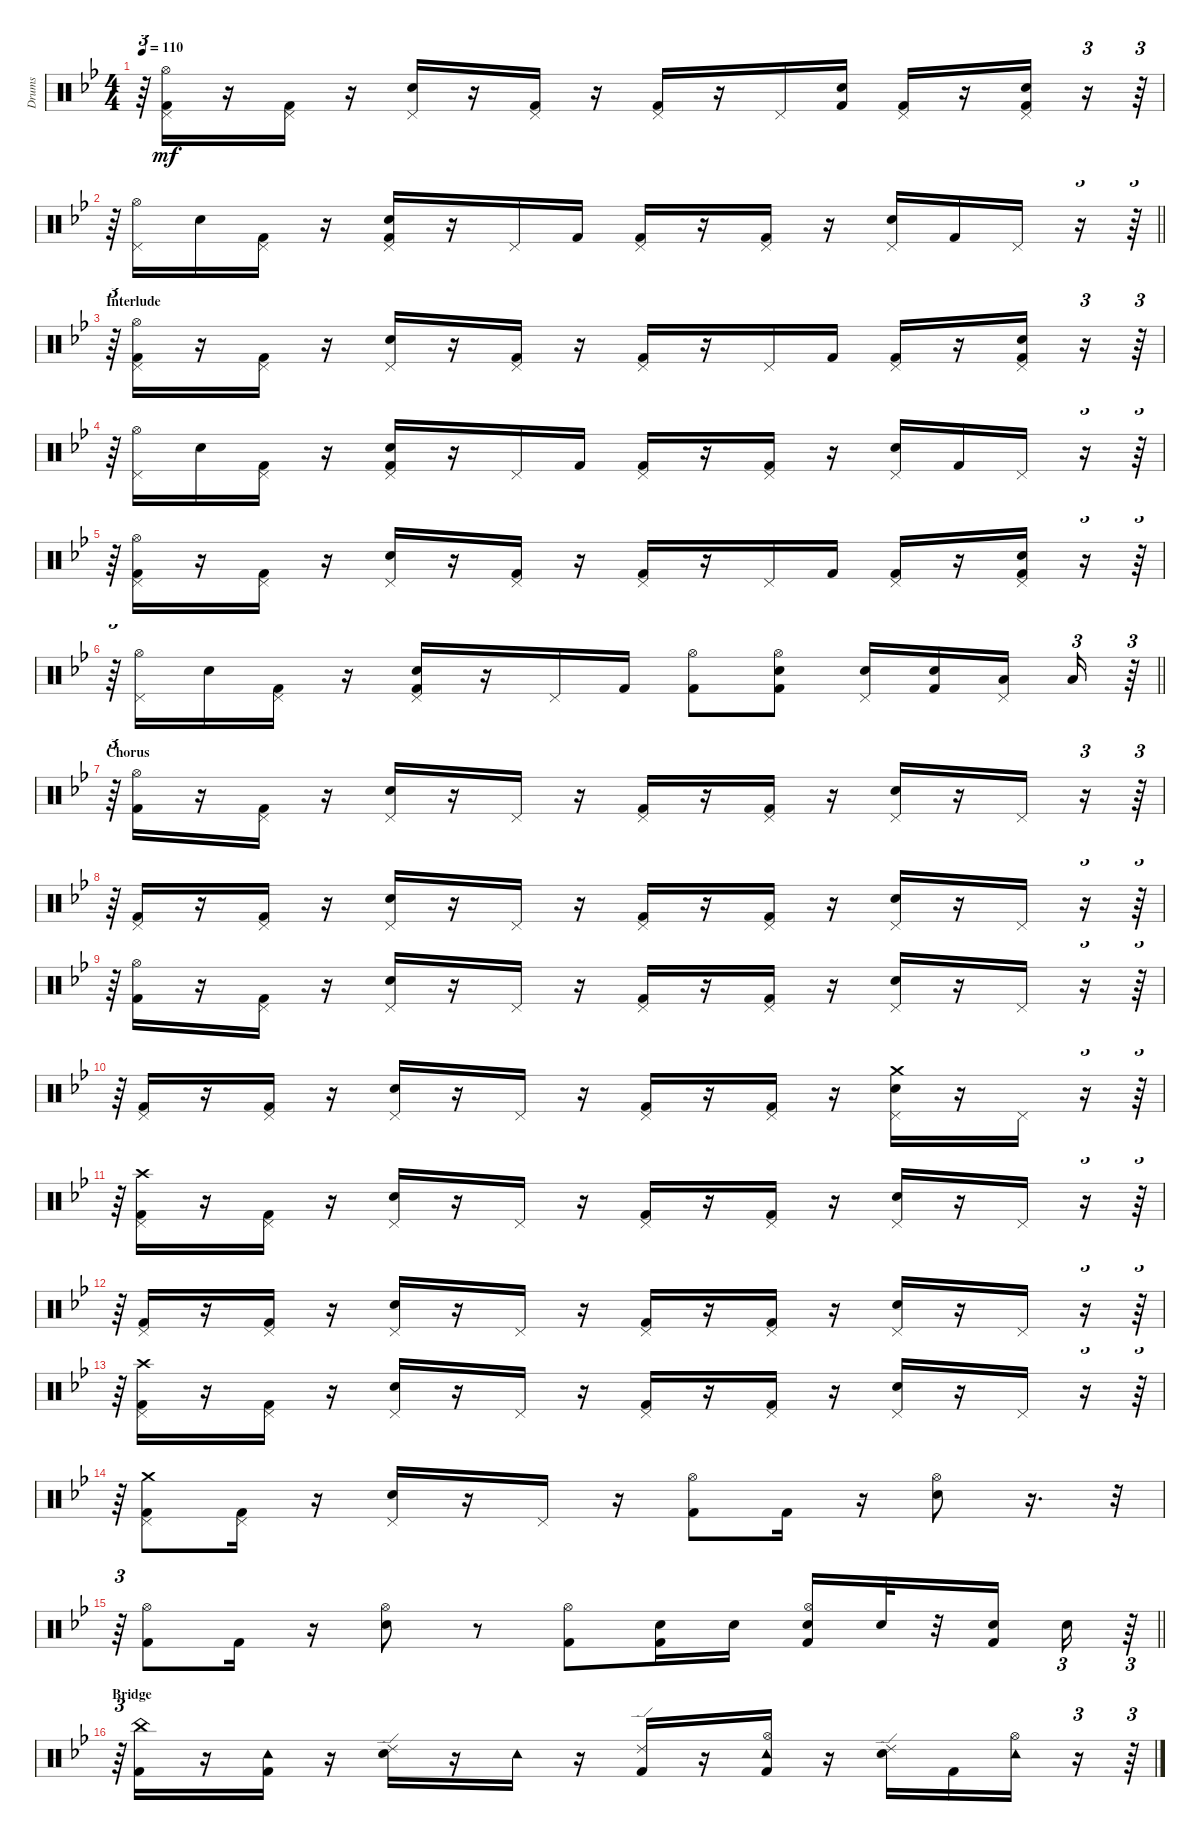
\track ("Drums" "Drums") {instrument percussion}
\staff {score}
\articulation defaults
\ts (4 4)
\tempo 110
\clef neutral
\ks gminor
r.64{tu (3 2) dy mf} ("Kick (hit) 2" "Pedal Hi-Hat (hit)" "Hi-Hat (open)").16 r.16 ("Kick (hit) 2" "Pedal Hi-Hat (hit)").16 r.16 ("Snare (hit) 2" "Pedal Hi-Hat (hit)").16 r.16 ("Kick (hit) 2" "Pedal Hi-Hat (hit)").16 r.16 ("Kick (hit) 2" "Pedal Hi-Hat (hit)").16 r.16 "Pedal Hi-Hat (hit)".16 ("Kick (hit) 2" "Snare (hit) 2").16 ("Kick (hit) 2" "Pedal Hi-Hat (hit)").16 r.16 ("Kick (hit) 2" "Snare (hit) 2" "Pedal Hi-Hat (hit)").16 r.16{tu (3 2)} r.64{tu (3 2)} |
\barLineRight lightlight
r.64{tu (3 2)} ("Pedal Hi-Hat (hit)" "Hi-Hat (open)").16 "Snare (hit) 2".16 ("Kick (hit) 2" "Pedal Hi-Hat (hit)").16 r.16 ("Kick (hit) 2" "Snare (hit) 2" "Pedal Hi-Hat (hit)").16 r.16 "Pedal Hi-Hat (hit)".16 "Kick (hit) 2".16 ("Kick (hit) 2" "Pedal Hi-Hat (hit)").16 r.16 ("Kick (hit) 2" "Pedal Hi-Hat (hit)").16 r.16 ("Snare (hit) 2" "Pedal Hi-Hat (hit)").16 "Kick (hit) 2".16 "Pedal Hi-Hat (hit)".16 r.16{tu (3 2)} r.64{tu (3 2)} |
\section ("" "Interlude")
r.64{tu (3 2)} ("Kick (hit) 2" "Pedal Hi-Hat (hit)" "Hi-Hat (open)").16 r.16 ("Kick (hit) 2" "Pedal Hi-Hat (hit)").16 r.16 ("Snare (hit) 2" "Pedal Hi-Hat (hit)").16 r.16 ("Kick (hit) 2" "Pedal Hi-Hat (hit)").16 r.16 ("Kick (hit) 2" "Pedal Hi-Hat (hit)").16 r.16 "Pedal Hi-Hat (hit)".16 "Kick (hit) 2".16 ("Kick (hit) 2" "Pedal Hi-Hat (hit)").16 r.16 ("Kick (hit) 2" "Snare (hit) 2" "Pedal Hi-Hat (hit)").16 r.16{tu (3 2)} r.64{tu (3 2)} |
r.64{tu (3 2)} ("Pedal Hi-Hat (hit)" "Hi-Hat (open)").16 "Snare (hit) 2".16 ("Kick (hit) 2" "Pedal Hi-Hat (hit)").16 r.16 ("Kick (hit) 2" "Snare (hit) 2" "Pedal Hi-Hat (hit)").16 r.16 "Pedal Hi-Hat (hit)".16 "Kick (hit) 2".16 ("Kick (hit) 2" "Pedal Hi-Hat (hit)").16 r.16 ("Kick (hit) 2" "Pedal Hi-Hat (hit)").16 r.16 ("Snare (hit) 2" "Pedal Hi-Hat (hit)").16 "Kick (hit) 2".16 "Pedal Hi-Hat (hit)".16 r.16{tu (3 2)} r.64{tu (3 2)} |
r.64{tu (3 2)} ("Kick (hit) 2" "Pedal Hi-Hat (hit)" "Hi-Hat (open)").16 r.16 ("Kick (hit) 2" "Pedal Hi-Hat (hit)").16 r.16 ("Snare (hit) 2" "Pedal Hi-Hat (hit)").16 r.16 ("Kick (hit) 2" "Pedal Hi-Hat (hit)").16 r.16 ("Kick (hit) 2" "Pedal Hi-Hat (hit)").16 r.16 "Pedal Hi-Hat (hit)".16 "Kick (hit) 2".16 ("Kick (hit) 2" "Pedal Hi-Hat (hit)").16 r.16 ("Kick (hit) 2" "Snare (hit) 2" "Pedal Hi-Hat (hit)").16 r.16{tu (3 2)} r.64{tu (3 2)} |
\barLineRight lightlight
r.64{tu (3 2)} ("Pedal Hi-Hat (hit)" "Hi-Hat (open)").16 "Snare (hit) 2".16 ("Kick (hit) 2" "Pedal Hi-Hat (hit)").16 r.16 ("Kick (hit) 2" "Snare (hit) 2" "Pedal Hi-Hat (hit)").16 r.16 "Pedal Hi-Hat (hit)".16 "Kick (hit) 2".16 ("Kick (hit) 2" "Hi-Hat (open)").8 ("Kick (hit) 2" "Snare (hit) 2" "Hi-Hat (open)").8 ("Snare (hit) 2" "Pedal Hi-Hat (hit)").16 ("Kick (hit) 2" "Snare (hit) 2").16 ("Low Floor Tom (hit)" "Pedal Hi-Hat (hit)").16{beam splitsecondary} "Low Floor Tom (hit)".16{tu (3 2)} r.64{tu (3 2)} |
\section ("" "Chorus")
r.64{tu (3 2)} ("Kick (hit) 2" "Hi-Hat (open)").16 r.16 ("Kick (hit) 2" "Pedal Hi-Hat (hit)").16 r.16 ("Snare (hit) 2" "Pedal Hi-Hat (hit)").16 r.16 "Pedal Hi-Hat (hit)".16 r.16 ("Kick (hit) 2" "Pedal Hi-Hat (hit)").16 r.16 ("Kick (hit) 2" "Pedal Hi-Hat (hit)").16 r.16 ("Snare (hit) 2" "Pedal Hi-Hat (hit)").16 r.16 "Pedal Hi-Hat (hit)".16 r.16{tu (3 2)} r.64{tu (3 2)} |
r.64{tu (3 2)} ("Kick (hit) 2" "Pedal Hi-Hat (hit)").16 r.16 ("Kick (hit) 2" "Pedal Hi-Hat (hit)").16 r.16 ("Snare (hit) 2" "Pedal Hi-Hat (hit)").16 r.16 "Pedal Hi-Hat (hit)".16 r.16 ("Kick (hit) 2" "Pedal Hi-Hat (hit)").16 r.16 ("Kick (hit) 2" "Pedal Hi-Hat (hit)").16 r.16 ("Snare (hit) 2" "Pedal Hi-Hat (hit)").16 r.16 "Pedal Hi-Hat (hit)".16 r.16{tu (3 2)} r.64{tu (3 2)} |
r.64{tu (3 2)} ("Kick (hit) 2" "Hi-Hat (open)").16 r.16 ("Kick (hit) 2" "Pedal Hi-Hat (hit)").16 r.16 ("Snare (hit) 2" "Pedal Hi-Hat (hit)").16 r.16 "Pedal Hi-Hat (hit)".16 r.16 ("Kick (hit) 2" "Pedal Hi-Hat (hit)").16 r.16 ("Kick (hit) 2" "Pedal Hi-Hat (hit)").16 r.16 ("Snare (hit) 2" "Pedal Hi-Hat (hit)").16 r.16 "Pedal Hi-Hat (hit)".16 r.16{tu (3 2)} r.64{tu (3 2)} |
r.64{tu (3 2)} ("Kick (hit) 2" "Pedal Hi-Hat (hit)").16 r.16 ("Kick (hit) 2" "Pedal Hi-Hat (hit)").16 r.16 ("Snare (hit) 2" "Pedal Hi-Hat (hit)").16 r.16 "Pedal Hi-Hat (hit)".16 r.16 ("Kick (hit) 2" "Pedal Hi-Hat (hit)").16 r.16 ("Kick (hit) 2" "Pedal Hi-Hat (hit)").16 r.16 ("Snare (hit) 2" "Pedal Hi-Hat (hit)" "Crash medium (hit)").16 r.16 "Pedal Hi-Hat (hit)".16 r.16{tu (3 2)} r.64{tu (3 2)} |
r.64{tu (3 2)} ("Kick (hit) 2" "Pedal Hi-Hat (hit)" "Crash high (hit)").16 r.16 ("Kick (hit) 2" "Pedal Hi-Hat (hit)").16 r.16 ("Snare (hit) 2" "Pedal Hi-Hat (hit)").16 r.16 "Pedal Hi-Hat (hit)".16 r.16 ("Kick (hit) 2" "Pedal Hi-Hat (hit)").16 r.16 ("Kick (hit) 2" "Pedal Hi-Hat (hit)").16 r.16 ("Snare (hit) 2" "Pedal Hi-Hat (hit)").16 r.16 "Pedal Hi-Hat (hit)".16 r.16{tu (3 2)} r.64{tu (3 2)} |
r.64{tu (3 2)} ("Kick (hit) 2" "Pedal Hi-Hat (hit)").16 r.16 ("Kick (hit) 2" "Pedal Hi-Hat (hit)").16 r.16 ("Snare (hit) 2" "Pedal Hi-Hat (hit)").16 r.16 "Pedal Hi-Hat (hit)".16 r.16 ("Kick (hit) 2" "Pedal Hi-Hat (hit)").16 r.16 ("Kick (hit) 2" "Pedal Hi-Hat (hit)").16 r.16 ("Snare (hit) 2" "Pedal Hi-Hat (hit)").16 r.16 "Pedal Hi-Hat (hit)".16 r.16{tu (3 2)} r.64{tu (3 2)} |
r.64{tu (3 2)} ("Kick (hit) 2" "Pedal Hi-Hat (hit)" "Crash high (hit)").16 r.16 ("Kick (hit) 2" "Pedal Hi-Hat (hit)").16 r.16 ("Snare (hit) 2" "Pedal Hi-Hat (hit)").16 r.16 "Pedal Hi-Hat (hit)".16 r.16 ("Kick (hit) 2" "Pedal Hi-Hat (hit)").16 r.16 ("Kick (hit) 2" "Pedal Hi-Hat (hit)").16 r.16 ("Snare (hit) 2" "Pedal Hi-Hat (hit)").16 r.16 "Pedal Hi-Hat (hit)".16 r.16{tu (3 2)} r.64{tu (3 2)} |
r.64{tu (3 2)} ("Kick (hit) 2" "Pedal Hi-Hat (hit)" "Crash medium (hit)").8 ("Kick (hit) 2" "Pedal Hi-Hat (hit)").16 r.16 ("Snare (hit) 2" "Pedal Hi-Hat (hit)").16 r.16 "Pedal Hi-Hat (hit)".16 r.16 ("Kick (hit) 2" "Hi-Hat (open)").8 "Kick (hit) 2".16 r.16 ("Snare (hit) 2" "Hi-Hat (open)").8 r.16{d} r.32{tu (3 2)} |
\barLineRight lightlight
r.64{tu (3 2)} ("Hi-Hat (open)" "Kick (hit) 2").8 "Kick (hit) 2".16 r.16 ("Snare (hit) 2" "Hi-Hat (open)").8 r.8 ("Kick (hit) 2" "Hi-Hat (open)").8 ("Kick (hit) 2" "Snare (hit) 2").16 "Snare (hit) 2".16 ("Kick (hit) 2" "Snare (hit) 2" "Hi-Hat (open)").16 "Snare (hit) 2".32 r.32 ("Kick (hit) 2" "Snare (hit) 2").16 "Snare (hit) 2".16{tu (3 2)} r.64{tu (3 2)} |
\section ("" "Bridge")
r.64{tu (3 2)} ("Kick (hit) 2" "China (hit)").16 r.16 ("Kick (hit) 2" "Tambourine (hit)").16 r.16 ("Snare (hit) 2" "Ride (edge) 2").16 r.16 "Tambourine (hit)".16 r.16 ("Kick (hit) 2" "Ride (edge) 2").16 r.16 ("Kick (hit) 2" "Hi-Hat (open)" "Tambourine (hit)").16 r.16 ("Snare (hit) 2" "Ride (edge) 2").16 "Kick (hit) 2".16 ("Hi-Hat (open)" "Tambourine (hit)").16 r.16{tu (3 2)} r.64{tu (3 2)}
